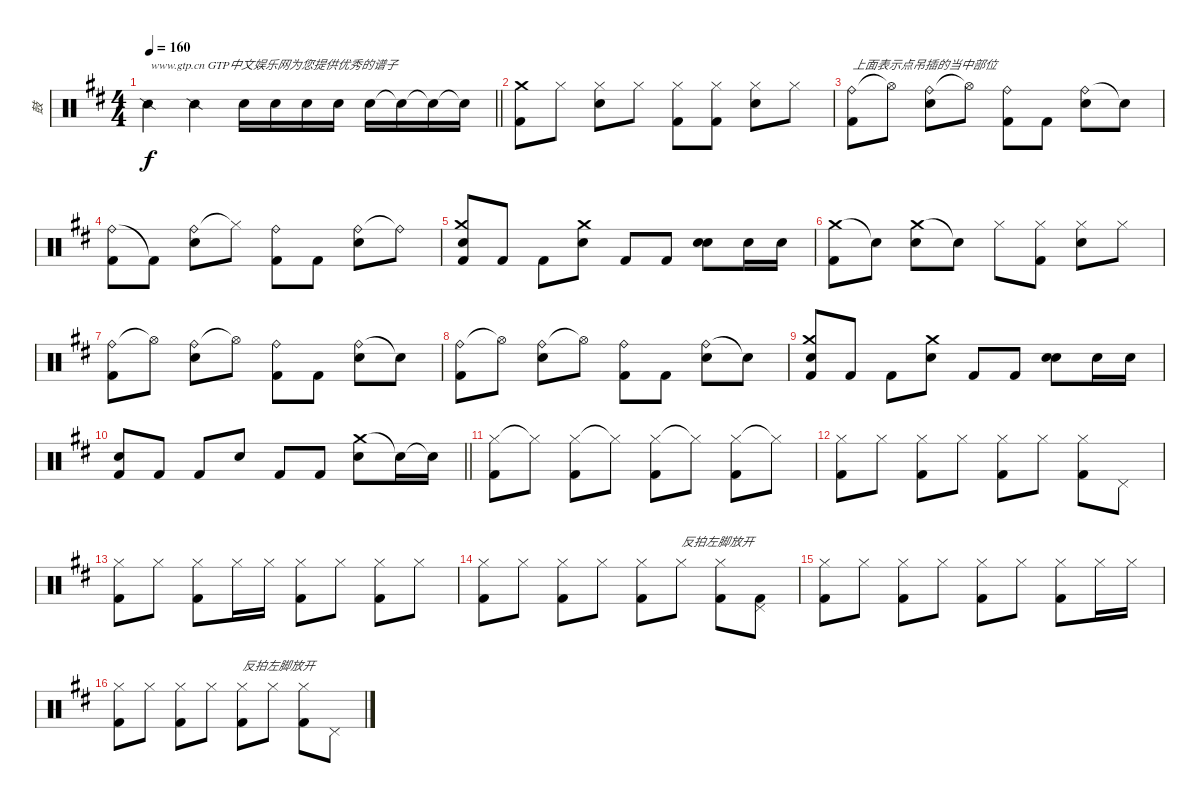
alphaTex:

\track ("鼓" "鼓") {instrument percussion}
\staff {score}
\articulation defaults
\ts (4 4)
\tempo 160
\clef neutral
\barLineRight lightlight
\ks d "Snare (side stick) 2".4{txt "www.gtp.cn GTP中文娱乐网为您提供优秀的谱子" dy f} "Snare (side stick) 2".4 "Electric Snare (hit)".16 "Electric Snare (hit)".16 "Electric Snare (hit)".16 "Electric Snare (hit)".16 "Electric Snare (hit)".16 "Snare (hit) 2"{t}.16 "Snare (hit) 2"{t}.16 "Snare (hit) 2"{t}.16
|
("Crash medium (hit)" "Kick (hit) 2").8 "Hi-Hat (closed)".8 ("Hi-Hat (closed)" "Electric Snare (hit)").8 "Hi-Hat (closed)".8 ("Hi-Hat (closed)" "Kick (hit) 2").8 ("Hi-Hat (closed)" "Kick (hit) 2").8 ("Hi-Hat (closed)" "Electric Snare (hit)").8 "Hi-Hat (closed)".8 |
("Ride (bell)" "Kick (hit) 2").8{txt "上面表示点吊插的当中部位"} "Hi-Hat (open)"{t}.8 ("Ride (bell)" "Electric Snare (hit)").8 "Hi-Hat (open)"{t}.8 ("Ride (bell)" "Kick (hit) 2").8 "Kick (hit) 2".8 ("Ride (bell)" "Electric Snare (hit)").8 "Snare (hit)"{t}.8 |
("Ride (bell)" "Kick (hit) 2").8 "Kick (hit) 2"{t}.8 ("Ride (bell)" "Electric Snare (hit)").8 "Hi-Hat (closed)"{t}.8 ("Ride (bell)" "Kick (hit) 2").8 "Kick (hit) 2".8 ("Ride (bell)" "Electric Snare (hit)").8 "Ride (bell)"{t}.8 |
("Crash medium (hit)" "Electric Snare (hit)" "Kick (hit) 2").8 "Kick (hit) 2".8 "Kick (hit) 2".8 ("Crash medium (hit)" "Electric Snare (hit)").8 "Kick (hit) 2".8 "Kick (hit) 2".8 ("Electric Snare (hit)" "Electric Snare (hit)").8 "Electric Snare (hit)".16 "Electric Snare (hit)".16 |
("Crash medium (hit)" "Kick (hit) 2").8 "Snare (hit)"{t}.8 ("Crash medium (hit)" "Electric Snare (hit)").8 "Snare (hit)"{t}.8 "Hi-Hat (closed)".8 ("Hi-Hat (closed)" "Kick (hit) 2").8 ("Hi-Hat (closed)" "Electric Snare (hit)").8 "Hi-Hat (closed)".8 |
("Ride (bell)" "Kick (hit) 2").8 "Hi-Hat (open)"{t}.8 ("Ride (bell)" "Electric Snare (hit)").8 "Hi-Hat (open)"{t}.8 ("Ride (bell)" "Kick (hit) 2").8 "Kick (hit) 2".8 ("Ride (bell)" "Electric Snare (hit)").8 "Snare (hit)"{t}.8 |
("Ride (bell)" "Kick (hit) 2").8 "Hi-Hat (open)"{t}.8 ("Ride (bell)" "Electric Snare (hit)").8 "Hi-Hat (open)"{t}.8 ("Ride (bell)" "Kick (hit) 2").8 "Kick (hit) 2".8 ("Ride (bell)" "Electric Snare (hit)").8 "Snare (hit)"{t}.8 |
("Crash medium (hit)" "Electric Snare (hit)" "Kick (hit) 2").8 "Kick (hit) 2".8 "Kick (hit) 2".8 ("Crash medium (hit)" "Electric Snare (hit)").8 "Kick (hit) 2".8 "Kick (hit) 2".8 ("Electric Snare (hit)" "Electric Snare (hit)").8 "Electric Snare (hit)".16 "Electric Snare (hit)".16 |
\barLineRight lightlight
("Electric Snare (hit)" "Kick (hit) 2").8 "Kick (hit) 2".8 "Kick (hit) 2".8 "Electric Snare (hit)".8 "Kick (hit) 2".8 "Kick (hit) 2".8 ("Crash medium (hit)" "Electric Snare (hit)").8 "Snare (hit) 2"{t}.16 "Snare (hit) 2"{t}.16 |
("Hi-Hat (closed)" "Kick (hit) 2").8 "Hi-Hat (closed)"{t}.8 ("Hi-Hat (closed)" "Kick (hit) 2").8 "Hi-Hat (closed)"{t}.8 ("Hi-Hat (closed)" "Kick (hit) 2").8 "Hi-Hat (closed)"{t}.8 ("Hi-Hat (closed)" "Kick (hit) 2").8 "Hi-Hat (closed)"{t}.8 |
("Hi-Hat (closed)" "Kick (hit) 2").8 "Hi-Hat (closed)".8 ("Hi-Hat (closed)" "Kick (hit) 2").8 "Hi-Hat (closed)".8 ("Hi-Hat (closed)" "Kick (hit) 2").8 "Hi-Hat (closed)".8 ("Hi-Hat (closed)" "Kick (hit) 2").8 "Pedal Hi-Hat (hit)".8 |
("Hi-Hat (closed)" "Kick (hit) 2").8 "Hi-Hat (closed)".8 ("Hi-Hat (closed)" "Kick (hit) 2").8 "Hi-Hat (closed)".16 "Hi-Hat (closed)".16 ("Hi-Hat (closed)" "Kick (hit) 2").8 "Hi-Hat (closed)".8 ("Hi-Hat (closed)" "Kick (hit) 2").8 "Hi-Hat (closed)".8 |
("Hi-Hat (closed)" "Kick (hit) 2").8 "Hi-Hat (closed)".8 ("Hi-Hat (closed)" "Kick (hit) 2").8 "Hi-Hat (closed)".8 ("Hi-Hat (closed)" "Kick (hit) 2").8 "Hi-Hat (closed)".8{txt "反拍左脚放开"} ("Hi-Hat (closed)" "Kick (hit) 2").8 ("Pedal Hi-Hat (hit)" "Kick (hit) 2").8 |
("Hi-Hat (closed)" "Kick (hit) 2").8 "Hi-Hat (closed)".8 ("Hi-Hat (closed)" "Kick (hit) 2").8 "Hi-Hat (closed)".8 ("Hi-Hat (closed)" "Kick (hit) 2").8 "Hi-Hat (closed)".8 ("Hi-Hat (closed)" "Kick (hit) 2").8 "Hi-Hat (closed)".16 "Hi-Hat (closed)".16 |
("Hi-Hat (closed)" "Kick (hit) 2").8 "Hi-Hat (closed)".8 ("Hi-Hat (closed)" "Kick (hit) 2").8 "Hi-Hat (closed)".8 ("Hi-Hat (closed)" "Kick (hit) 2").8{txt "反拍左脚放开"} "Hi-Hat (closed)".8 ("Hi-Hat (closed)" "Kick (hit) 2").8 "Pedal Hi-Hat (hit)".8
